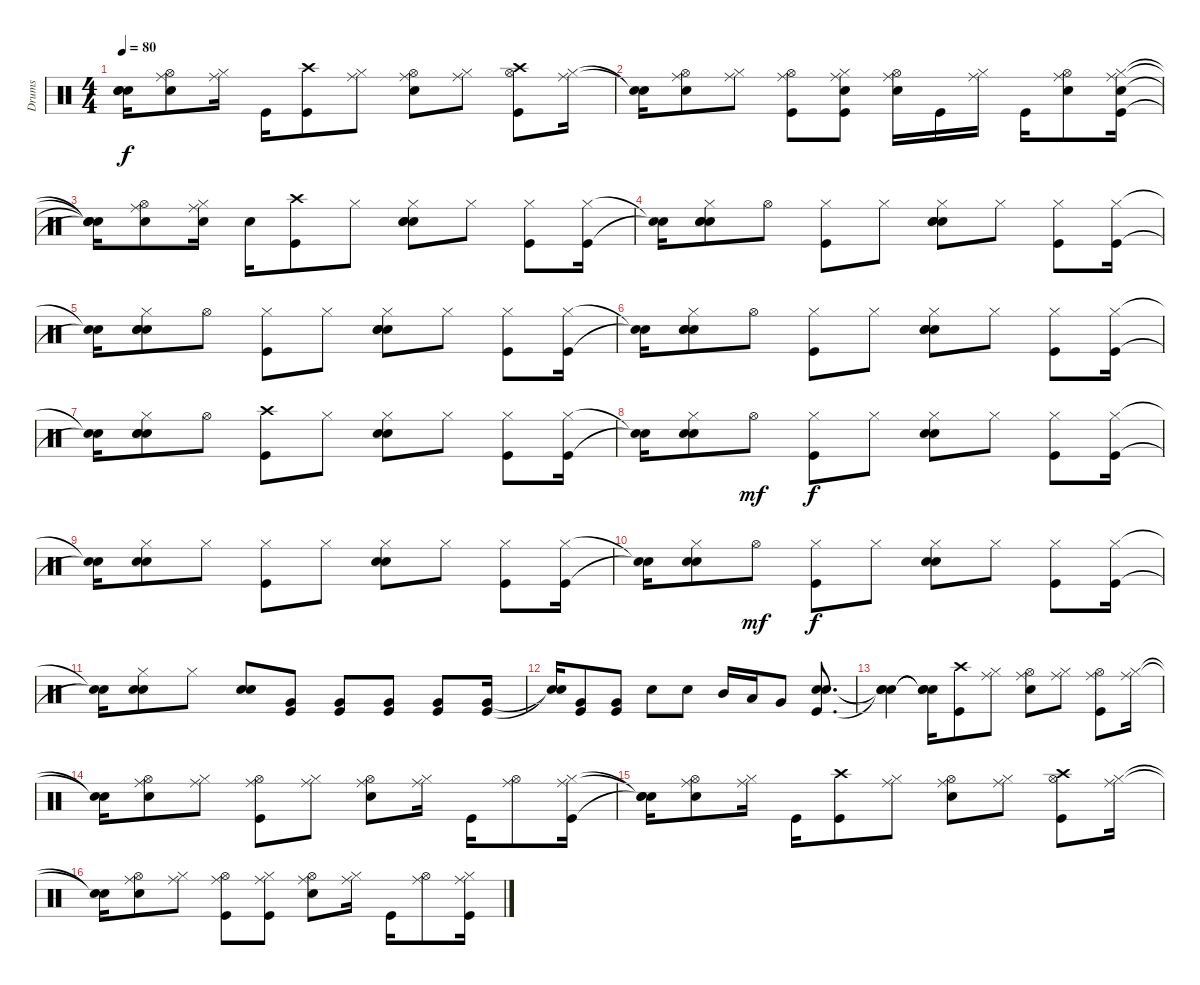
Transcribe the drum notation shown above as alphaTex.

\track ("Drums" "Drums") {instrument percussion}
\staff {score}
\articulation defaults
\ts (4 4)
\tempo 80
\clef neutral
\ks c
("Snare (hit)"{t} "Snare (hit)"{t} "Snare (hit)"{t}).16{dy f} ("Electric Snare (hit)" "Hi-Hat (open)" "Ride (middle)").8 ("Hi-Hat (closed)" "Ride (middle)").16 "Kick (hit)".16 ("Kick (hit)" "Crash high (hit)").8 ("Hi-Hat (closed)" "Ride (middle)").8 ("Electric Snare (hit)" "Hi-Hat (open)" "Ride (middle)").8 ("Hi-Hat (closed)" "Ride (middle)").8 ("Kick (hit)" "Hi-Hat (open)" "Crash high (hit)").8 ("Hi-Hat (closed)" "Ride (middle)").16 |
("Snare (hit)"{t} "Snare (hit)"{t}).16 ("Electric Snare (hit)" "Hi-Hat (open)" "Ride (middle)").8 ("Hi-Hat (closed)" "Ride (middle)").8 ("Kick (hit)" "Hi-Hat (open)" "Ride (middle)").8 ("Kick (hit)" "Electric Snare (hit)" "Hi-Hat (closed)" "Ride (middle)").8 ("Electric Snare (hit)" "Hi-Hat (open)" "Ride (middle)").16 "Kick (hit)".16 ("Hi-Hat (closed)" "Ride (middle)").16 "Kick (hit)".16 ("Electric Snare (hit)" "Hi-Hat (open)" "Ride (middle)").8 ("Kick (hit)" "Electric Snare (hit)" "Hi-Hat (closed)" "Ride (middle)").16 |
("Snare (hit)"{t} "Snare (hit)"{t} "Snare (hit)"{t} "Snare (hit)"{t}).16 ("Electric Snare (hit)" "Hi-Hat (open)" "Ride (middle)").8 ("Electric Snare (hit)" "Hi-Hat (closed)" "Ride (middle)").16 "Electric Snare (hit)".16 ("Kick (hit)" "Crash high (hit)").8 "Hi-Hat (closed)".8 ("Electric Snare (hit)" "Electric Snare (hit)" "Hi-Hat (closed)" "Electric Snare (hit)").8 "Hi-Hat (closed)".8 ("Kick (hit)" "Hi-Hat (closed)").8 ("Kick (hit)" "Hi-Hat (closed)").16 |
("Snare (hit)"{t} "Snare (hit)"{t}).16 ("Electric Snare (hit)" "Electric Snare (hit)" "Hi-Hat (closed)" "Electric Snare (hit)").8 "Hi-Hat (open)".8 ("Kick (hit)" "Hi-Hat (closed)").8 "Hi-Hat (closed)".8 ("Electric Snare (hit)" "Electric Snare (hit)" "Hi-Hat (closed)" "Electric Snare (hit)").8 "Hi-Hat (closed)".8 ("Kick (hit)" "Hi-Hat (closed)").8 ("Kick (hit)" "Hi-Hat (closed)").16 |
("Snare (hit)"{t} "Snare (hit)"{t}).16 ("Electric Snare (hit)" "Electric Snare (hit)" "Hi-Hat (closed)" "Electric Snare (hit)").8 "Hi-Hat (open)".8 ("Kick (hit)" "Hi-Hat (closed)").8 "Hi-Hat (closed)".8 ("Electric Snare (hit)" "Electric Snare (hit)" "Hi-Hat (closed)" "Electric Snare (hit)").8 "Hi-Hat (closed)".8 ("Kick (hit)" "Hi-Hat (closed)").8 ("Kick (hit)" "Hi-Hat (closed)").16 |
("Snare (hit)"{t} "Snare (hit)"{t}).16 ("Electric Snare (hit)" "Electric Snare (hit)" "Hi-Hat (closed)" "Electric Snare (hit)").8 "Hi-Hat (open)".8 ("Kick (hit)" "Hi-Hat (closed)").8 "Hi-Hat (closed)".8 ("Electric Snare (hit)" "Electric Snare (hit)" "Hi-Hat (closed)" "Electric Snare (hit)").8 "Hi-Hat (closed)".8 ("Kick (hit)" "Hi-Hat (closed)").8 ("Kick (hit)" "Hi-Hat (closed)").16 |
("Snare (hit)"{t} "Snare (hit)"{t}).16 ("Electric Snare (hit)" "Electric Snare (hit)" "Hi-Hat (closed)" "Electric Snare (hit)").8 "Hi-Hat (open)".8 ("Kick (hit)" "Crash high (hit)").8 "Hi-Hat (closed)".8 ("Electric Snare (hit)" "Hi-Hat (closed)" "Electric Snare (hit)").8 "Hi-Hat (closed)".8 ("Kick (hit)" "Hi-Hat (closed)").8 ("Kick (hit)" "Hi-Hat (closed)").16 |
("Snare (hit)"{t} "Snare (hit)"{t}).16 ("Electric Snare (hit)" "Hi-Hat (closed)" "Electric Snare (hit)").8 "Hi-Hat (open)".8{dy mf} ("Kick (hit)" "Hi-Hat (closed)").8{dy f} "Hi-Hat (closed)".8 ("Electric Snare (hit)" "Hi-Hat (closed)" "Electric Snare (hit)").8 "Hi-Hat (closed)".8 ("Kick (hit)" "Hi-Hat (closed)").8 ("Kick (hit)" "Hi-Hat (closed)").16 |
("Snare (hit)"{t} "Snare (hit)"{t}).16 ("Electric Snare (hit)" "Hi-Hat (closed)" "Electric Snare (hit)").8 "Hi-Hat (closed)".8 ("Kick (hit)" "Hi-Hat (closed)").8 "Hi-Hat (closed)".8 ("Electric Snare (hit)" "Hi-Hat (closed)" "Electric Snare (hit)").8 "Hi-Hat (closed)".8 ("Kick (hit)" "Hi-Hat (closed)").8 ("Kick (hit)" "Hi-Hat (closed)").16 |
("Snare (hit)"{t} "Snare (hit)"{t}).16 ("Electric Snare (hit)" "Hi-Hat (closed)" "Electric Snare (hit)").8 "Hi-Hat (open)".8{dy mf} ("Kick (hit)" "Hi-Hat (closed)").8{dy f} "Hi-Hat (closed)".8 ("Electric Snare (hit)" "Hi-Hat (closed)" "Electric Snare (hit)").8 "Hi-Hat (closed)".8 ("Kick (hit)" "Hi-Hat (closed)").8 ("Kick (hit)" "Hi-Hat (closed)").16 |
("Snare (hit)"{t} "Snare (hit)"{t}).16 ("Electric Snare (hit)" "Hi-Hat (closed)" "Electric Snare (hit)").8 "Hi-Hat (closed)".8 ("Electric Snare (hit)" "Electric Snare (hit)").8 ("Kick (hit)" "Very Low Tom (hit)").8 ("Kick (hit)" "Very Low Tom (hit)").8 ("Kick (hit)" "Very Low Tom (hit)").8 ("Kick (hit)" "Very Low Tom (hit)").8 ("Kick (hit)" "Very Low Tom (hit)").16 |
("Snare (hit)"{t} "Snare (hit)"{t}).16 ("Kick (hit)" "Very Low Tom (hit)").8 ("Kick (hit)" "Very Low Tom (hit)").8 "Electric Snare (hit)".8 "Electric Snare (hit)".8 "Mid Tom (hit)".16 "Low Tom (hit)".16 "Very Low Tom (hit)".8 ("Kick (hit)" "Electric Snare (hit)" "Electric Snare (hit)").8{d} |
("Snare (hit)"{t} "Snare (hit)"{t} "Snare (hit)"{t}).4 ("Snare (hit)"{t} "Snare (hit)"{t} "Snare (hit)"{t}).16 ("Kick (hit)" "Crash high (hit)").8 ("Hi-Hat (closed)" "Ride (middle)").8 ("Electric Snare (hit)" "Hi-Hat (open)" "Ride (middle)").8 ("Hi-Hat (closed)" "Ride (middle)").8 ("Kick (hit)" "Hi-Hat (open)" "Ride (middle)").8 ("Hi-Hat (closed)" "Ride (middle)").16 |
("Snare (hit)"{t} "Snare (hit)"{t}).16 ("Electric Snare (hit)" "Hi-Hat (open)" "Ride (middle)").8 ("Hi-Hat (closed)" "Ride (middle)").8 ("Kick (hit)" "Hi-Hat (open)" "Ride (middle)").8 ("Hi-Hat (closed)" "Ride (middle)").8 ("Electric Snare (hit)" "Hi-Hat (open)" "Ride (middle)").8 ("Hi-Hat (closed)" "Ride (middle)").16 "Kick (hit)".16 ("Hi-Hat (open)" "Ride (middle)").8 ("Kick (hit)" "Hi-Hat (closed)" "Ride (middle)").16 |
("Snare (hit)"{t} "Snare (hit)"{t} "Snare (hit)"{t}).16 ("Electric Snare (hit)" "Hi-Hat (open)" "Ride (middle)").8 ("Hi-Hat (closed)" "Ride (middle)").16 "Kick (hit)".16 ("Kick (hit)" "Crash high (hit)").8 ("Hi-Hat (closed)" "Ride (middle)").8 ("Electric Snare (hit)" "Hi-Hat (open)" "Ride (middle)").8 ("Hi-Hat (closed)" "Ride (middle)").8 ("Kick (hit)" "Hi-Hat (open)" "Crash high (hit)").8 ("Hi-Hat (closed)" "Ride (middle)").16 |
("Snare (hit)"{t} "Snare (hit)"{t}).16 ("Electric Snare (hit)" "Hi-Hat (open)" "Ride (middle)").8 ("Hi-Hat (closed)" "Ride (middle)").8 ("Kick (hit)" "Hi-Hat (open)" "Ride (middle)").8 ("Kick (hit)" "Hi-Hat (closed)" "Ride (middle)").8 ("Electric Snare (hit)" "Hi-Hat (open)" "Ride (middle)").8 ("Hi-Hat (closed)" "Ride (middle)").16 "Kick (hit)".16 ("Hi-Hat (open)" "Ride (middle)").8 ("Kick (hit)" "Hi-Hat (closed)" "Ride (middle)").16
